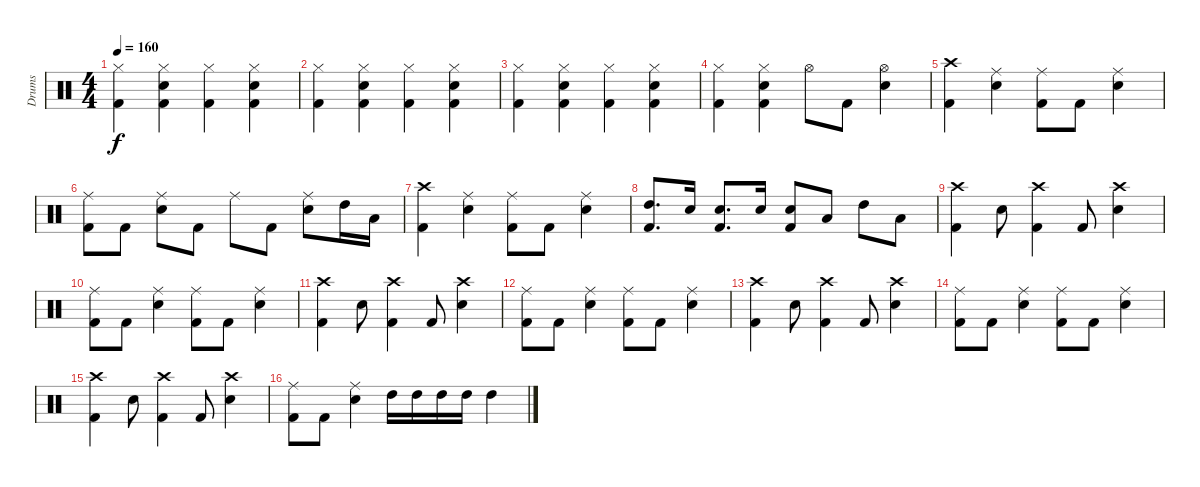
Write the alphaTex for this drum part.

\track ("Drums" "Drums") {instrument percussion}
\staff {score}
\articulation defaults
\ts (4 4)
\tempo 160
\clef neutral
\ks c
("Hi-Hat (closed)" "Kick (hit) 2").4{dy f} ("Hi-Hat (closed)" "Kick (hit) 2" "Snare (hit) 2").4 ("Hi-Hat (closed)" "Kick (hit) 2").4 ("Hi-Hat (closed)" "Kick (hit) 2" "Snare (hit) 2").4 |
("Hi-Hat (closed)" "Kick (hit) 2").4 ("Hi-Hat (closed)" "Kick (hit) 2" "Snare (hit) 2").4 ("Hi-Hat (closed)" "Kick (hit) 2").4 ("Hi-Hat (closed)" "Kick (hit) 2" "Snare (hit) 2").4 |
("Hi-Hat (closed)" "Kick (hit) 2").4 ("Hi-Hat (closed)" "Kick (hit) 2" "Snare (hit) 2").4 ("Hi-Hat (closed)" "Kick (hit) 2").4 ("Hi-Hat (closed)" "Kick (hit) 2" "Snare (hit) 2").4 |
("Hi-Hat (closed)" "Kick (hit) 2").4 ("Hi-Hat (closed)" "Kick (hit) 2" "Snare (hit) 2").4 "Hi-Hat (open)".8 "Kick (hit) 2".8 ("Hi-Hat (open)" "Snare (hit) 2").4 |
("Crash high (hit)" "Kick (hit) 2").4 ("Ride (middle)" "Snare (hit) 2").4 ("Ride (middle)" "Kick (hit) 2").8 "Kick (hit) 2".8 ("Ride (middle)" "Snare (hit) 2").4 |
("Ride (middle)" "Kick (hit) 2").8 "Kick (hit) 2".8 ("Ride (middle)" "Snare (hit) 2").8 "Kick (hit) 2".8 "Ride (middle)".8 "Kick (hit) 2".8 ("Ride (middle)" "Snare (hit) 2").8 "High Tom (hit)".16 "Low Tom (hit)".16 |
("Crash high (hit)" "Kick (hit) 2").4 ("Ride (middle)" "Snare (hit) 2").4 ("Ride (middle)" "Kick (hit) 2").8 "Kick (hit) 2".8 ("Ride (middle)" "Snare (hit) 2").4 |
("High Tom (hit)" "Kick (hit) 2").8{d} "Snare (hit) 2".16 ("Snare (hit) 2" "Kick (hit) 2").8{d} "Snare (hit) 2".16 ("Snare (hit) 2" "Kick (hit) 2").8 "Low Tom (hit)".8 "High Tom (hit)".8 "Low Tom (hit)".8 |
("Crash high (hit)" "Kick (hit) 2").4 "Snare (hit) 2".8 ("Crash high (hit)" "Kick (hit) 2").4 "Kick (hit) 2".8 ("Crash high (hit)" "Snare (hit) 2").4 |
("Ride (middle)" "Kick (hit) 2").8 "Kick (hit) 2".8 ("Ride (middle)" "Snare (hit) 2").4 ("Ride (middle)" "Kick (hit) 2").8 "Kick (hit) 2".8 ("Ride (middle)" "Snare (hit) 2").4 |
("Crash high (hit)" "Kick (hit) 2").4 "Snare (hit) 2".8 ("Crash high (hit)" "Kick (hit) 2").4 "Kick (hit) 2".8 ("Crash high (hit)" "Snare (hit) 2").4 |
("Ride (middle)" "Kick (hit) 2").8 "Kick (hit) 2".8 ("Ride (middle)" "Snare (hit) 2").4 ("Ride (middle)" "Kick (hit) 2").8 "Kick (hit) 2".8 ("Ride (middle)" "Snare (hit) 2").4 |
("Crash high (hit)" "Kick (hit) 2").4 "Snare (hit) 2".8 ("Crash high (hit)" "Kick (hit) 2").4 "Kick (hit) 2".8 ("Crash high (hit)" "Snare (hit) 2").4 |
("Ride (middle)" "Kick (hit) 2").8 "Kick (hit) 2".8 ("Ride (middle)" "Snare (hit) 2").4 ("Ride (middle)" "Kick (hit) 2").8 "Kick (hit) 2".8 ("Ride (middle)" "Snare (hit) 2").4 |
("Crash high (hit)" "Kick (hit) 2").4 "Snare (hit) 2".8 ("Crash high (hit)" "Kick (hit) 2").4 "Kick (hit) 2".8 ("Crash high (hit)" "Snare (hit) 2").4 |
("Ride (middle)" "Kick (hit) 2").8 "Kick (hit) 2".8 ("Ride (middle)" "Snare (hit) 2").4 "High Tom (hit)".16 "High Tom (hit)".16 "High Tom (hit)".16 "High Tom (hit)".16 "High Tom (hit)".4
